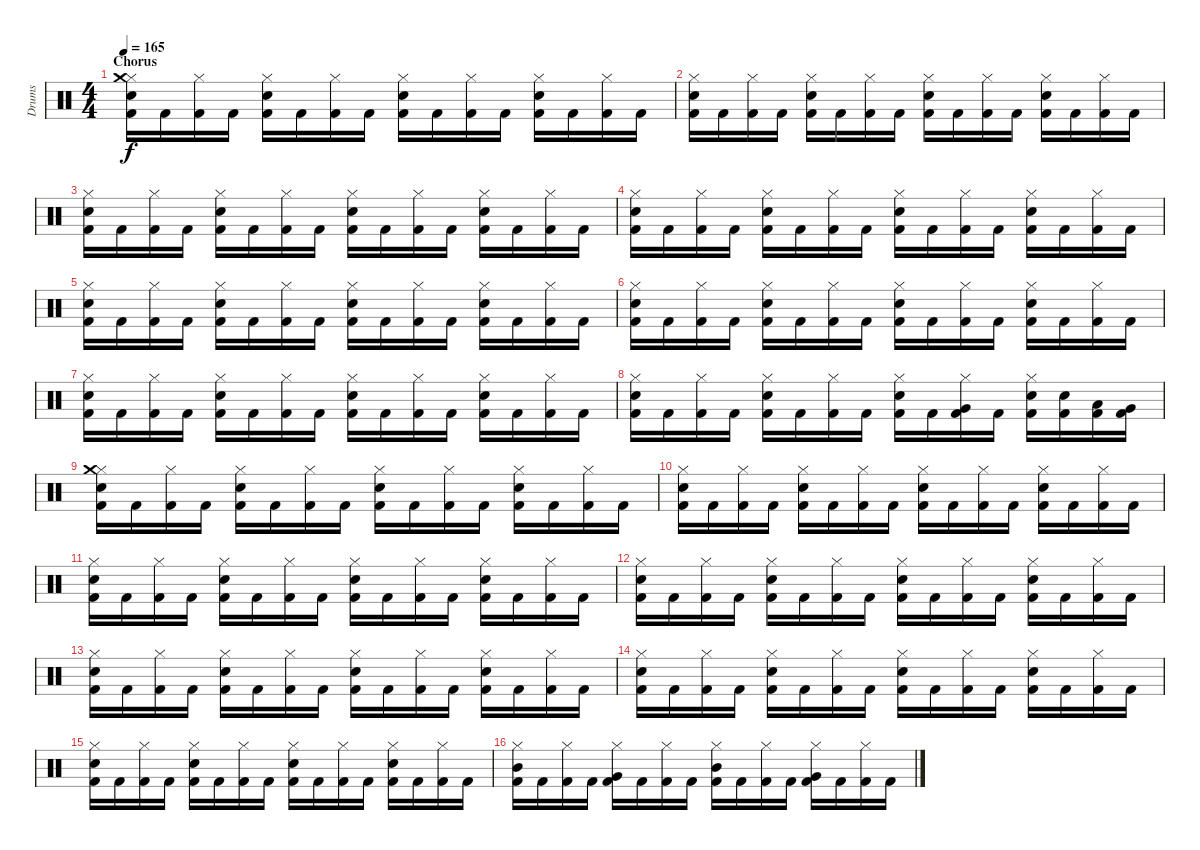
\track ("Drums" "Drums") {instrument percussion}
\staff {score}
\articulation defaults
\ts (4 4)
\section ("" "Chorus")
\tempo 165
\clef neutral
\ks c
("Hi-Hat (closed)" "Snare (hit) 2" "Crash medium (hit)" "Kick (hit) 2").16{dy f} "Kick (hit) 2".16 ("Hi-Hat (closed)" "Kick (hit) 2").16 "Kick (hit) 2".16 ("Hi-Hat (closed)" "Snare (hit) 2" "Kick (hit) 2").16 "Kick (hit) 2".16 ("Hi-Hat (closed)" "Kick (hit) 2").16 "Kick (hit) 2".16 ("Hi-Hat (closed)" "Snare (hit) 2" "Kick (hit) 2").16 "Kick (hit) 2".16 ("Hi-Hat (closed)" "Kick (hit) 2").16 "Kick (hit) 2".16 ("Hi-Hat (closed)" "Snare (hit) 2" "Kick (hit) 2").16 "Kick (hit) 2".16 ("Hi-Hat (closed)" "Kick (hit) 2").16 "Kick (hit) 2".16 |
("Hi-Hat (closed)" "Snare (hit) 2" "Kick (hit) 2").16 "Kick (hit) 2".16 ("Hi-Hat (closed)" "Kick (hit) 2").16 "Kick (hit) 2".16 ("Hi-Hat (closed)" "Snare (hit) 2" "Kick (hit) 2").16 "Kick (hit) 2".16 ("Hi-Hat (closed)" "Kick (hit) 2").16 "Kick (hit) 2".16 ("Hi-Hat (closed)" "Snare (hit) 2" "Kick (hit) 2").16 "Kick (hit) 2".16 ("Hi-Hat (closed)" "Kick (hit) 2").16 "Kick (hit) 2".16 ("Hi-Hat (closed)" "Snare (hit) 2" "Kick (hit) 2").16 "Kick (hit) 2".16 ("Hi-Hat (closed)" "Kick (hit) 2").16 "Kick (hit) 2".16 |
("Hi-Hat (closed)" "Snare (hit) 2" "Kick (hit) 2").16 "Kick (hit) 2".16 ("Hi-Hat (closed)" "Kick (hit) 2").16 "Kick (hit) 2".16 ("Hi-Hat (closed)" "Snare (hit) 2" "Kick (hit) 2").16 "Kick (hit) 2".16 ("Hi-Hat (closed)" "Kick (hit) 2").16 "Kick (hit) 2".16 ("Hi-Hat (closed)" "Snare (hit) 2" "Kick (hit) 2").16 "Kick (hit) 2".16 ("Hi-Hat (closed)" "Kick (hit) 2").16 "Kick (hit) 2".16 ("Hi-Hat (closed)" "Snare (hit) 2" "Kick (hit) 2").16 "Kick (hit) 2".16 ("Hi-Hat (closed)" "Kick (hit) 2").16 "Kick (hit) 2".16 |
("Hi-Hat (closed)" "Snare (hit) 2" "Kick (hit) 2").16 "Kick (hit) 2".16 ("Hi-Hat (closed)" "Kick (hit) 2").16 "Kick (hit) 2".16 ("Hi-Hat (closed)" "Snare (hit) 2" "Kick (hit) 2").16 "Kick (hit) 2".16 ("Hi-Hat (closed)" "Kick (hit) 2").16 "Kick (hit) 2".16 ("Hi-Hat (closed)" "Snare (hit) 2" "Kick (hit) 2").16 "Kick (hit) 2".16 ("Hi-Hat (closed)" "Kick (hit) 2").16 "Kick (hit) 2".16 ("Hi-Hat (closed)" "Snare (hit) 2" "Kick (hit) 2").16 "Kick (hit) 2".16 ("Hi-Hat (closed)" "Kick (hit) 2").16 "Kick (hit) 2".16 |
("Hi-Hat (closed)" "Snare (hit) 2" "Kick (hit) 2").16 "Kick (hit) 2".16 ("Hi-Hat (closed)" "Kick (hit) 2").16 "Kick (hit) 2".16 ("Hi-Hat (closed)" "Snare (hit) 2" "Kick (hit) 2").16 "Kick (hit) 2".16 ("Hi-Hat (closed)" "Kick (hit) 2").16 "Kick (hit) 2".16 ("Hi-Hat (closed)" "Snare (hit) 2" "Kick (hit) 2").16 "Kick (hit) 2".16 ("Hi-Hat (closed)" "Kick (hit) 2").16 "Kick (hit) 2".16 ("Hi-Hat (closed)" "Snare (hit) 2" "Kick (hit) 2").16 "Kick (hit) 2".16 ("Hi-Hat (closed)" "Kick (hit) 2").16 "Kick (hit) 2".16 |
("Hi-Hat (closed)" "Snare (hit) 2" "Kick (hit) 2").16 "Kick (hit) 2".16 ("Hi-Hat (closed)" "Kick (hit) 2").16 "Kick (hit) 2".16 ("Hi-Hat (closed)" "Snare (hit) 2" "Kick (hit) 2").16 "Kick (hit) 2".16 ("Hi-Hat (closed)" "Kick (hit) 2").16 "Kick (hit) 2".16 ("Hi-Hat (closed)" "Snare (hit) 2" "Kick (hit) 2").16 "Kick (hit) 2".16 ("Hi-Hat (closed)" "Kick (hit) 2").16 "Kick (hit) 2".16 ("Hi-Hat (closed)" "Snare (hit) 2" "Kick (hit) 2").16 "Kick (hit) 2".16 ("Hi-Hat (closed)" "Kick (hit) 2").16 "Kick (hit) 2".16 |
("Hi-Hat (closed)" "Snare (hit) 2" "Kick (hit) 2").16 "Kick (hit) 2".16 ("Hi-Hat (closed)" "Kick (hit) 2").16 "Kick (hit) 2".16 ("Hi-Hat (closed)" "Snare (hit) 2" "Kick (hit) 2").16 "Kick (hit) 2".16 ("Hi-Hat (closed)" "Kick (hit) 2").16 "Kick (hit) 2".16 ("Hi-Hat (closed)" "Snare (hit) 2" "Kick (hit) 2").16 "Kick (hit) 2".16 ("Hi-Hat (closed)" "Kick (hit) 2").16 "Kick (hit) 2".16 ("Hi-Hat (closed)" "Snare (hit) 2" "Kick (hit) 2").16 "Kick (hit) 2".16 ("Hi-Hat (closed)" "Kick (hit) 2").16 "Kick (hit) 2".16 |
("Hi-Hat (closed)" "Snare (hit) 2" "Kick (hit) 2").16 "Kick (hit) 2".16 ("Hi-Hat (closed)" "Kick (hit) 2").16 "Kick (hit) 2".16 ("Hi-Hat (closed)" "Snare (hit) 2" "Kick (hit) 2").16 "Kick (hit) 2".16 ("Hi-Hat (closed)" "Kick (hit) 2").16 "Kick (hit) 2".16 ("Hi-Hat (closed)" "Snare (hit) 2" "Kick (hit) 2").16 "Kick (hit) 2".16 ("Hi-Hat (closed)" "Very Low Tom (hit)" "Kick (hit) 2").16 "Kick (hit) 2".16 ("Hi-Hat (closed)" "Snare (hit) 2" "Kick (hit) 2").16 ("Snare (hit) 2" "Kick (hit) 2").16 ("Low Tom (hit)" "Kick (hit) 2").16 ("Very Low Tom (hit)" "Kick (hit) 2").16 |
("Hi-Hat (closed)" "Snare (hit) 2" "Crash medium (hit)" "Kick (hit) 2").16 "Kick (hit) 2".16 ("Hi-Hat (closed)" "Kick (hit) 2").16 "Kick (hit) 2".16 ("Hi-Hat (closed)" "Snare (hit) 2" "Kick (hit) 2").16 "Kick (hit) 2".16 ("Hi-Hat (closed)" "Kick (hit) 2").16 "Kick (hit) 2".16 ("Hi-Hat (closed)" "Snare (hit) 2" "Kick (hit) 2").16 "Kick (hit) 2".16 ("Hi-Hat (closed)" "Kick (hit) 2").16 "Kick (hit) 2".16 ("Hi-Hat (closed)" "Snare (hit) 2" "Kick (hit) 2").16 "Kick (hit) 2".16 ("Hi-Hat (closed)" "Kick (hit) 2").16 "Kick (hit) 2".16 |
("Hi-Hat (closed)" "Snare (hit) 2" "Kick (hit) 2").16 "Kick (hit) 2".16 ("Hi-Hat (closed)" "Kick (hit) 2").16 "Kick (hit) 2".16 ("Hi-Hat (closed)" "Snare (hit) 2" "Kick (hit) 2").16 "Kick (hit) 2".16 ("Hi-Hat (closed)" "Kick (hit) 2").16 "Kick (hit) 2".16 ("Hi-Hat (closed)" "Snare (hit) 2" "Kick (hit) 2").16 "Kick (hit) 2".16 ("Hi-Hat (closed)" "Kick (hit) 2").16 "Kick (hit) 2".16 ("Hi-Hat (closed)" "Snare (hit) 2" "Kick (hit) 2").16 "Kick (hit) 2".16 ("Hi-Hat (closed)" "Kick (hit) 2").16 "Kick (hit) 2".16 |
("Hi-Hat (closed)" "Snare (hit) 2" "Kick (hit) 2").16 "Kick (hit) 2".16 ("Hi-Hat (closed)" "Kick (hit) 2").16 "Kick (hit) 2".16 ("Hi-Hat (closed)" "Snare (hit) 2" "Kick (hit) 2").16 "Kick (hit) 2".16 ("Hi-Hat (closed)" "Kick (hit) 2").16 "Kick (hit) 2".16 ("Hi-Hat (closed)" "Snare (hit) 2" "Kick (hit) 2").16 "Kick (hit) 2".16 ("Hi-Hat (closed)" "Kick (hit) 2").16 "Kick (hit) 2".16 ("Hi-Hat (closed)" "Snare (hit) 2" "Kick (hit) 2").16 "Kick (hit) 2".16 ("Hi-Hat (closed)" "Kick (hit) 2").16 "Kick (hit) 2".16 |
("Hi-Hat (closed)" "Snare (hit) 2" "Kick (hit) 2").16 "Kick (hit) 2".16 ("Hi-Hat (closed)" "Kick (hit) 2").16 "Kick (hit) 2".16 ("Hi-Hat (closed)" "Snare (hit) 2" "Kick (hit) 2").16 "Kick (hit) 2".16 ("Hi-Hat (closed)" "Kick (hit) 2").16 "Kick (hit) 2".16 ("Hi-Hat (closed)" "Snare (hit) 2" "Kick (hit) 2").16 "Kick (hit) 2".16 ("Hi-Hat (closed)" "Kick (hit) 2").16 "Kick (hit) 2".16 ("Hi-Hat (closed)" "Snare (hit) 2" "Kick (hit) 2").16 "Kick (hit) 2".16 ("Hi-Hat (closed)" "Kick (hit) 2").16 "Kick (hit) 2".16 |
("Hi-Hat (closed)" "Snare (hit) 2" "Kick (hit) 2").16 "Kick (hit) 2".16 ("Hi-Hat (closed)" "Kick (hit) 2").16 "Kick (hit) 2".16 ("Hi-Hat (closed)" "Snare (hit) 2" "Kick (hit) 2").16 "Kick (hit) 2".16 ("Hi-Hat (closed)" "Kick (hit) 2").16 "Kick (hit) 2".16 ("Hi-Hat (closed)" "Snare (hit) 2" "Kick (hit) 2").16 "Kick (hit) 2".16 ("Hi-Hat (closed)" "Kick (hit) 2").16 "Kick (hit) 2".16 ("Hi-Hat (closed)" "Snare (hit) 2" "Kick (hit) 2").16 "Kick (hit) 2".16 ("Hi-Hat (closed)" "Kick (hit) 2").16 "Kick (hit) 2".16 |
("Hi-Hat (closed)" "Snare (hit) 2" "Kick (hit) 2").16 "Kick (hit) 2".16 ("Hi-Hat (closed)" "Kick (hit) 2").16 "Kick (hit) 2".16 ("Hi-Hat (closed)" "Snare (hit) 2" "Kick (hit) 2").16 "Kick (hit) 2".16 ("Hi-Hat (closed)" "Kick (hit) 2").16 "Kick (hit) 2".16 ("Hi-Hat (closed)" "Snare (hit) 2" "Kick (hit) 2").16 "Kick (hit) 2".16 ("Hi-Hat (closed)" "Kick (hit) 2").16 "Kick (hit) 2".16 ("Hi-Hat (closed)" "Snare (hit) 2" "Kick (hit) 2").16 "Kick (hit) 2".16 ("Hi-Hat (closed)" "Kick (hit) 2").16 "Kick (hit) 2".16 |
("Hi-Hat (closed)" "Snare (hit) 2" "Kick (hit) 2").16 "Kick (hit) 2".16 ("Hi-Hat (closed)" "Kick (hit) 2").16 "Kick (hit) 2".16 ("Hi-Hat (closed)" "Snare (hit) 2" "Kick (hit) 2").16 "Kick (hit) 2".16 ("Hi-Hat (closed)" "Kick (hit) 2").16 "Kick (hit) 2".16 ("Hi-Hat (closed)" "Snare (hit) 2" "Kick (hit) 2").16 "Kick (hit) 2".16 ("Hi-Hat (closed)" "Kick (hit) 2").16 "Kick (hit) 2".16 ("Hi-Hat (closed)" "Snare (hit) 2" "Kick (hit) 2").16 "Kick (hit) 2".16 ("Hi-Hat (closed)" "Kick (hit) 2").16 "Kick (hit) 2".16 |
("Hi-Hat (closed)" "Mid Tom (hit)" "Kick (hit) 2").16 "Kick (hit) 2".16 ("Hi-Hat (closed)" "Kick (hit) 2").16 "Kick (hit) 2".16 ("Hi-Hat (closed)" "Very Low Tom (hit)" "Kick (hit) 2").16 "Kick (hit) 2".16 ("Hi-Hat (closed)" "Kick (hit) 2").16 "Kick (hit) 2".16 ("Hi-Hat (closed)" "Mid Tom (hit)" "Kick (hit) 2").16 "Kick (hit) 2".16 ("Hi-Hat (closed)" "Kick (hit) 2").16 "Kick (hit) 2".16 ("Hi-Hat (closed)" "Very Low Tom (hit)" "Kick (hit) 2").16 "Kick (hit) 2".16 ("Hi-Hat (closed)" "Kick (hit) 2").16 "Kick (hit) 2".16
